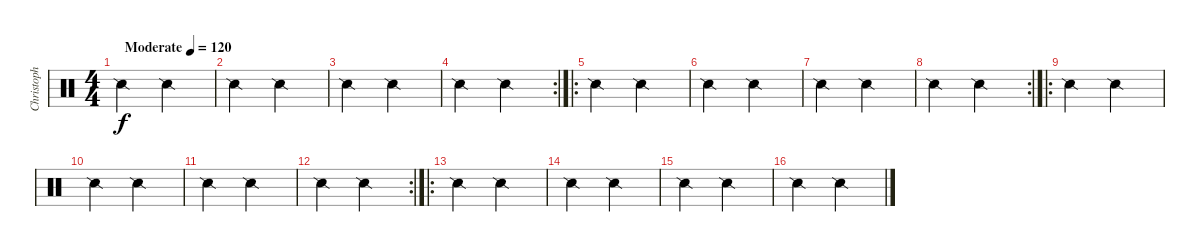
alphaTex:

\track ("Christoph \"Doom\" Schneider (Drums" "Christoph ") {instrument percussion}
\staff {score}
\articulation defaults
\ts (4 4)
\tempo (120 "Moderate")
\clef neutral
\ks c "Snare (side stick) 2".2{dy f} "Snare (side stick) 2".2
|
"Snare (side stick) 2".2 "Snare (side stick) 2".2 |
"Snare (side stick) 2".2 "Snare (side stick) 2".2 |
\rc 2 "Snare (side stick) 2".2 "Snare (side stick) 2".2
|
\ro "Snare (side stick) 2".2 "Snare (side stick) 2".2
|
"Snare (side stick) 2".2 "Snare (side stick) 2".2 |
"Snare (side stick) 2".2 "Snare (side stick) 2".2 |
\rc 2 "Snare (side stick) 2".2 "Snare (side stick) 2".2
|
\ro "Snare (side stick) 2".2 "Snare (side stick) 2".2
|
"Snare (side stick) 2".2 "Snare (side stick) 2".2 |
"Snare (side stick) 2".2 "Snare (side stick) 2".2 |
\rc 2 "Snare (side stick) 2".2 "Snare (side stick) 2".2
|
\ro "Snare (side stick) 2".2 "Snare (side stick) 2".2
|
"Snare (side stick) 2".2 "Snare (side stick) 2".2 |
"Snare (side stick) 2".2 "Snare (side stick) 2".2 |
"Snare (side stick) 2".2 "Snare (side stick) 2".2
